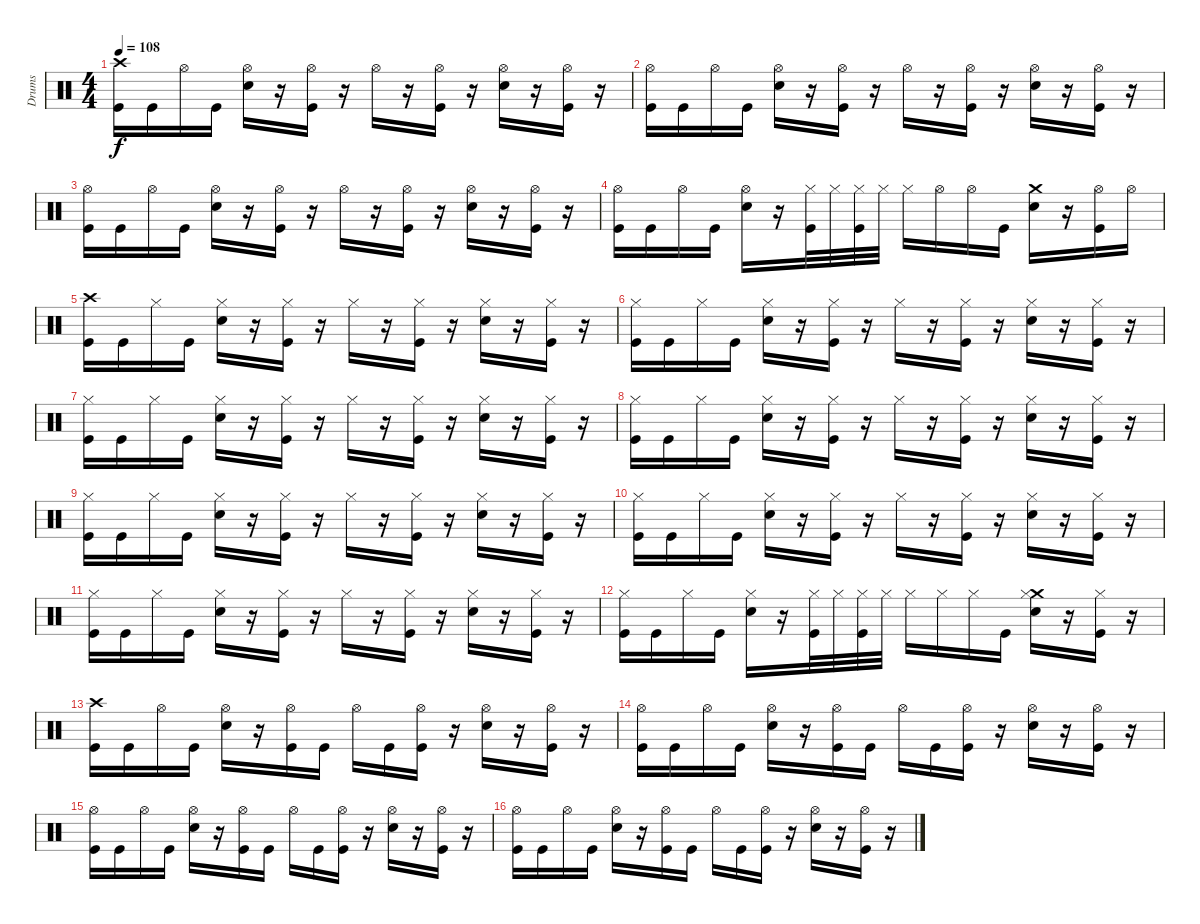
\track ("Drums" "Drums") {instrument percussion}
\staff {score}
\articulation defaults
\ts (4 4)
\tempo 108
\clef neutral
\ks c
("Crash high (hit)" "Kick (hit)").16{dy f} "Kick (hit)".16 "Hi-Hat (open)".16 "Kick (hit)".16 ("Hi-Hat (open)" "Electric Snare (hit)").16 r.16 ("Hi-Hat (open)" "Kick (hit)").16 r.16 "Hi-Hat (open)".16 r.16 ("Hi-Hat (open)" "Kick (hit)").16 r.16 ("Hi-Hat (open)" "Electric Snare (hit)").16 r.16 ("Hi-Hat (open)" "Kick (hit)").16 r.16 |
("Hi-Hat (open)" "Kick (hit)").16 "Kick (hit)".16 "Hi-Hat (open)".16 "Kick (hit)".16 ("Hi-Hat (open)" "Electric Snare (hit)").16 r.16 ("Hi-Hat (open)" "Kick (hit)").16 r.16 "Hi-Hat (open)".16 r.16 ("Hi-Hat (open)" "Kick (hit)").16 r.16 ("Hi-Hat (open)" "Electric Snare (hit)").16 r.16 ("Hi-Hat (open)" "Kick (hit)").16 r.16 |
("Hi-Hat (open)" "Kick (hit)").16 "Kick (hit)".16 "Hi-Hat (open)".16 "Kick (hit)".16 ("Hi-Hat (open)" "Electric Snare (hit)").16 r.16 ("Hi-Hat (open)" "Kick (hit)").16 r.16 "Hi-Hat (open)".16 r.16 ("Hi-Hat (open)" "Kick (hit)").16 r.16 ("Hi-Hat (open)" "Electric Snare (hit)").16 r.16 ("Hi-Hat (open)" "Kick (hit)").16 r.16 |
("Hi-Hat (open)" "Kick (hit)").16 "Kick (hit)".16 "Hi-Hat (open)".16 "Kick (hit)".16 ("Hi-Hat (open)" "Electric Snare (hit)").16 r.16 ("Hi-Hat (closed)" "Kick (hit)").32 "Hi-Hat (closed)".32 ("Hi-Hat (closed)" "Kick (hit)").32 "Hi-Hat (closed)".32 "Hi-Hat (closed)".16 "Hi-Hat (open)".16 "Hi-Hat (open)".16 "Kick (hit)".16 ("Crash medium (hit)" "Electric Snare (hit)").16 r.16 ("Hi-Hat (open)" "Kick (hit)").16 "Hi-Hat (open)".16 |
("Crash high (hit)" "Kick (hit)").16 "Kick (hit)".16 "Hi-Hat (closed)".16 "Kick (hit)".16 ("Hi-Hat (closed)" "Electric Snare (hit)").16 r.16 ("Hi-Hat (closed)" "Kick (hit)").16 r.16 "Hi-Hat (closed)".16 r.16 ("Hi-Hat (closed)" "Kick (hit)").16 r.16 ("Hi-Hat (closed)" "Electric Snare (hit)").16 r.16 ("Hi-Hat (closed)" "Kick (hit)").16 r.16 |
("Hi-Hat (closed)" "Kick (hit)").16 "Kick (hit)".16 "Hi-Hat (closed)".16 "Kick (hit)".16 ("Hi-Hat (closed)" "Electric Snare (hit)").16 r.16 ("Hi-Hat (closed)" "Kick (hit)").16 r.16 "Hi-Hat (closed)".16 r.16 ("Hi-Hat (closed)" "Kick (hit)").16 r.16 ("Hi-Hat (closed)" "Electric Snare (hit)").16 r.16 ("Hi-Hat (closed)" "Kick (hit)").16 r.16 |
("Hi-Hat (closed)" "Kick (hit)").16 "Kick (hit)".16 "Hi-Hat (closed)".16 "Kick (hit)".16 ("Hi-Hat (closed)" "Electric Snare (hit)").16 r.16 ("Hi-Hat (closed)" "Kick (hit)").16 r.16 "Hi-Hat (closed)".16 r.16 ("Hi-Hat (closed)" "Kick (hit)").16 r.16 ("Hi-Hat (closed)" "Electric Snare (hit)").16 r.16 ("Hi-Hat (closed)" "Kick (hit)").16 r.16 |
("Hi-Hat (closed)" "Kick (hit)").16 "Kick (hit)".16 "Hi-Hat (closed)".16 "Kick (hit)".16 ("Hi-Hat (closed)" "Electric Snare (hit)").16 r.16 ("Hi-Hat (closed)" "Kick (hit)").16 r.16 "Hi-Hat (closed)".16 r.16 ("Hi-Hat (closed)" "Kick (hit)").16 r.16 ("Hi-Hat (closed)" "Electric Snare (hit)").16 r.16 ("Hi-Hat (closed)" "Kick (hit)").16 r.16 |
("Hi-Hat (closed)" "Kick (hit)").16 "Kick (hit)".16 "Hi-Hat (closed)".16 "Kick (hit)".16 ("Hi-Hat (closed)" "Electric Snare (hit)").16 r.16 ("Hi-Hat (closed)" "Kick (hit)").16 r.16 "Hi-Hat (closed)".16 r.16 ("Hi-Hat (closed)" "Kick (hit)").16 r.16 ("Hi-Hat (closed)" "Electric Snare (hit)").16 r.16 ("Hi-Hat (closed)" "Kick (hit)").16 r.16 |
("Hi-Hat (closed)" "Kick (hit)").16 "Kick (hit)".16 "Hi-Hat (closed)".16 "Kick (hit)".16 ("Hi-Hat (closed)" "Electric Snare (hit)").16 r.16 ("Hi-Hat (closed)" "Kick (hit)").16 r.16 "Hi-Hat (closed)".16 r.16 ("Hi-Hat (closed)" "Kick (hit)").16 r.16 ("Hi-Hat (closed)" "Electric Snare (hit)").16 r.16 ("Hi-Hat (closed)" "Kick (hit)").16 r.16 |
("Hi-Hat (closed)" "Kick (hit)").16 "Kick (hit)".16 "Hi-Hat (closed)".16 "Kick (hit)".16 ("Hi-Hat (closed)" "Electric Snare (hit)").16 r.16 ("Hi-Hat (closed)" "Kick (hit)").16 r.16 "Hi-Hat (closed)".16 r.16 ("Hi-Hat (closed)" "Kick (hit)").16 r.16 ("Hi-Hat (closed)" "Electric Snare (hit)").16 r.16 ("Hi-Hat (closed)" "Kick (hit)").16 r.16 |
("Hi-Hat (closed)" "Kick (hit)").16 "Kick (hit)".16 "Hi-Hat (closed)".16 "Kick (hit)".16 ("Hi-Hat (closed)" "Electric Snare (hit)").16 r.16 ("Hi-Hat (closed)" "Kick (hit)").32 "Hi-Hat (closed)".32 ("Hi-Hat (closed)" "Kick (hit)").32 "Hi-Hat (closed)".32 "Hi-Hat (closed)".16 "Hi-Hat (closed)".16 "Hi-Hat (closed)".16 "Kick (hit)".16 ("Crash medium (hit)" "Hi-Hat (closed)" "Electric Snare (hit)").16 r.16 ("Hi-Hat (closed)" "Kick (hit)").16 r.16 |
("Crash high (hit)" "Kick (hit)").16 "Kick (hit)".16 "Hi-Hat (open)".16 "Kick (hit)".16 ("Hi-Hat (open)" "Electric Snare (hit)").16 r.16 ("Hi-Hat (open)" "Kick (hit)").16 "Kick (hit)".16 "Hi-Hat (open)".16 "Kick (hit)".16 ("Hi-Hat (open)" "Kick (hit)").16 r.16 ("Hi-Hat (open)" "Electric Snare (hit)").16 r.16 ("Hi-Hat (open)" "Kick (hit)").16 r.16 |
("Hi-Hat (open)" "Kick (hit)").16 "Kick (hit)".16 "Hi-Hat (open)".16 "Kick (hit)".16 ("Hi-Hat (open)" "Electric Snare (hit)").16 r.16 ("Hi-Hat (open)" "Kick (hit)").16 "Kick (hit)".16 "Hi-Hat (open)".16 "Kick (hit)".16 ("Hi-Hat (open)" "Kick (hit)").16 r.16 ("Hi-Hat (open)" "Electric Snare (hit)").16 r.16 ("Hi-Hat (open)" "Kick (hit)").16 r.16 |
("Hi-Hat (open)" "Kick (hit)").16 "Kick (hit)".16 "Hi-Hat (open)".16 "Kick (hit)".16 ("Hi-Hat (open)" "Electric Snare (hit)").16 r.16 ("Hi-Hat (open)" "Kick (hit)").16 "Kick (hit)".16 "Hi-Hat (open)".16 "Kick (hit)".16 ("Hi-Hat (open)" "Kick (hit)").16 r.16 ("Hi-Hat (open)" "Electric Snare (hit)").16 r.16 ("Hi-Hat (open)" "Kick (hit)").16 r.16 |
("Hi-Hat (open)" "Kick (hit)").16 "Kick (hit)".16 "Hi-Hat (open)".16 "Kick (hit)".16 ("Hi-Hat (open)" "Electric Snare (hit)").16 r.16 ("Hi-Hat (open)" "Kick (hit)").16 "Kick (hit)".16 "Hi-Hat (open)".16 "Kick (hit)".16 ("Hi-Hat (open)" "Kick (hit)").16 r.16 ("Hi-Hat (open)" "Electric Snare (hit)").16 r.16 ("Hi-Hat (open)" "Kick (hit)").16 r.16
